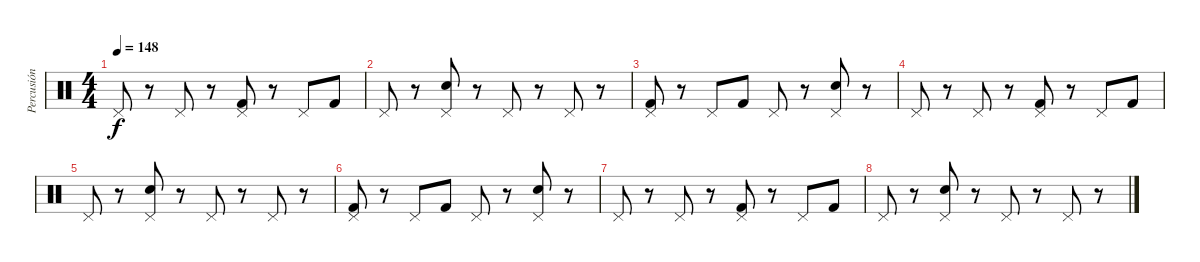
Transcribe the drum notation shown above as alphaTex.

\track ("Percusión" "Percusión") {instrument percussion}
\staff {score}
\articulation defaults
\ts (4 4)
\tempo 148
\clef neutral
\ks c "Pedal Hi-Hat (hit)".8{dy f}
r.8 "Pedal Hi-Hat (hit)".8 r.8 ("Pedal Hi-Hat (hit)" "Kick (hit) 2").8 r.8 "Pedal Hi-Hat (hit)".8 "Kick (hit) 2".8 |
"Pedal Hi-Hat (hit)".8 r.8 ("Pedal Hi-Hat (hit)" "Electric Snare (hit)").8 r.8 "Pedal Hi-Hat (hit)".8 r.8 "Pedal Hi-Hat (hit)".8 r.8 |
("Pedal Hi-Hat (hit)" "Kick (hit) 2").8 r.8 "Pedal Hi-Hat (hit)".8 "Kick (hit) 2".8 "Pedal Hi-Hat (hit)".8 r.8 ("Pedal Hi-Hat (hit)" "Electric Snare (hit)").8 r.8 |
"Pedal Hi-Hat (hit)".8 r.8 "Pedal Hi-Hat (hit)".8 r.8 ("Pedal Hi-Hat (hit)" "Kick (hit) 2").8 r.8 "Pedal Hi-Hat (hit)".8 "Kick (hit) 2".8 |
"Pedal Hi-Hat (hit)".8 r.8 ("Pedal Hi-Hat (hit)" "Electric Snare (hit)").8 r.8 "Pedal Hi-Hat (hit)".8 r.8 "Pedal Hi-Hat (hit)".8 r.8 |
("Pedal Hi-Hat (hit)" "Kick (hit) 2").8 r.8 "Pedal Hi-Hat (hit)".8 "Kick (hit) 2".8 "Pedal Hi-Hat (hit)".8 r.8 ("Pedal Hi-Hat (hit)" "Electric Snare (hit)").8 r.8 |
"Pedal Hi-Hat (hit)".8 r.8 "Pedal Hi-Hat (hit)".8 r.8 ("Pedal Hi-Hat (hit)" "Kick (hit) 2").8 r.8 "Pedal Hi-Hat (hit)".8 "Kick (hit) 2".8 |
"Pedal Hi-Hat (hit)".8 r.8 ("Pedal Hi-Hat (hit)" "Electric Snare (hit)").8 r.8 "Pedal Hi-Hat (hit)".8 r.8 "Pedal Hi-Hat (hit)".8 r.8
